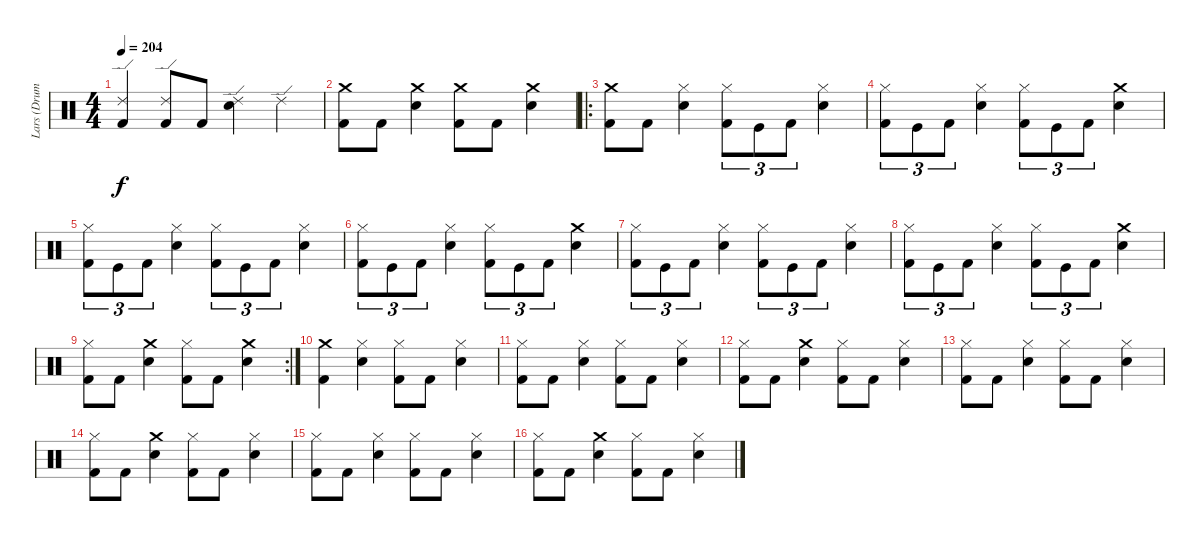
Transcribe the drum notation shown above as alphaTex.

\track ("Lars (Drums)" "Lars (Drum") {instrument percussion}
\staff {score}
\articulation defaults
\ts (4 4)
\tempo 204
\clef neutral
\ks c
("Kick (hit) 2" "Ride (edge) 2").4{dy f} ("Ride (edge) 2" "Kick (hit) 2").8 "Kick (hit) 2".8 ("Snare (hit) 2" "Ride (edge) 2").4 "Ride (edge) 2".4 |
("Kick (hit) 2" "Crash medium (hit)").8 "Kick (hit) 2".8 ("Snare (hit) 2" "Crash medium (hit)").4 ("Kick (hit) 2" "Crash medium (hit)").8 "Kick (hit) 2".8 ("Snare (hit) 2" "Crash medium (hit)").4 |
\ro
("Crash medium (hit)" "Kick (hit) 2").8 "Kick (hit) 2".8 ("Snare (hit) 2" "Hi-Hat (closed)").4 ("Hi-Hat (closed)" "Kick (hit) 2").8{tu (3 2)} "Kick (hit)".8{tu (3 2)} "Kick (hit) 2".8{tu (3 2)} ("Hi-Hat (closed)" "Snare (hit) 2").4 |
("Hi-Hat (closed)" "Kick (hit) 2").8{tu (3 2)} "Kick (hit)".8{tu (3 2)} "Kick (hit) 2".8{tu (3 2)} ("Snare (hit) 2" "Hi-Hat (closed)").4 ("Hi-Hat (closed)" "Kick (hit) 2").8{tu (3 2)} "Kick (hit)".8{tu (3 2)} "Kick (hit) 2".8{tu (3 2)} ("Crash medium (hit)" "Snare (hit) 2").4 |
("Hi-Hat (closed)" "Kick (hit) 2").8{tu (3 2)} "Kick (hit)".8{tu (3 2)} "Kick (hit) 2".8{tu (3 2)} ("Snare (hit) 2" "Hi-Hat (closed)").4 ("Hi-Hat (closed)" "Kick (hit) 2").8{tu (3 2)} "Kick (hit)".8{tu (3 2)} "Kick (hit) 2".8{tu (3 2)} ("Hi-Hat (closed)" "Snare (hit) 2").4 |
("Hi-Hat (closed)" "Kick (hit) 2").8{tu (3 2)} "Kick (hit)".8{tu (3 2)} "Kick (hit) 2".8{tu (3 2)} ("Snare (hit) 2" "Hi-Hat (closed)").4 ("Hi-Hat (closed)" "Kick (hit) 2").8{tu (3 2)} "Kick (hit)".8{tu (3 2)} "Kick (hit) 2".8{tu (3 2)} ("Crash medium (hit)" "Snare (hit) 2").4 |
("Hi-Hat (closed)" "Kick (hit) 2").8{tu (3 2)} "Kick (hit)".8{tu (3 2)} "Kick (hit) 2".8{tu (3 2)} ("Snare (hit) 2" "Hi-Hat (closed)").4 ("Hi-Hat (closed)" "Kick (hit) 2").8{tu (3 2)} "Kick (hit)".8{tu (3 2)} "Kick (hit) 2".8{tu (3 2)} ("Hi-Hat (closed)" "Snare (hit) 2").4 |
("Hi-Hat (closed)" "Kick (hit) 2").8{tu (3 2)} "Kick (hit)".8{tu (3 2)} "Kick (hit) 2".8{tu (3 2)} ("Snare (hit) 2" "Hi-Hat (closed)").4 ("Hi-Hat (closed)" "Kick (hit) 2").8{tu (3 2)} "Kick (hit)".8{tu (3 2)} "Kick (hit) 2".8{tu (3 2)} ("Crash medium (hit)" "Snare (hit) 2").4 |
\rc 2
("Kick (hit) 2" "Hi-Hat (closed)").8 "Kick (hit) 2".8 ("Crash medium (hit)" "Snare (hit) 2").4 ("Kick (hit) 2" "Hi-Hat (closed)").8 "Kick (hit) 2".8 ("Crash medium (hit)" "Snare (hit) 2").4 |
("Kick (hit) 2" "Crash medium (hit)").4 ("Hi-Hat (closed)" "Snare (hit) 2").4 ("Hi-Hat (closed)" "Kick (hit) 2").8 "Kick (hit) 2".8 ("Snare (hit) 2" "Hi-Hat (closed)").4 |
("Kick (hit) 2" "Hi-Hat (closed)").8 "Kick (hit) 2".8 ("Snare (hit) 2" "Hi-Hat (closed)").4 ("Kick (hit) 2" "Hi-Hat (closed)").8 "Kick (hit) 2".8 ("Snare (hit) 2" "Hi-Hat (closed)").4 |
("Kick (hit) 2" "Hi-Hat (closed)").8 "Kick (hit) 2".8 ("Crash medium (hit)" "Snare (hit) 2").4 ("Kick (hit) 2" "Hi-Hat (closed)").8 "Kick (hit) 2".8 ("Snare (hit) 2" "Hi-Hat (closed)").4 |
("Kick (hit) 2" "Hi-Hat (closed)").8 "Kick (hit) 2".8 ("Snare (hit) 2" "Hi-Hat (closed)").4 ("Kick (hit) 2" "Hi-Hat (closed)").8 "Kick (hit) 2".8 ("Snare (hit) 2" "Hi-Hat (closed)").4 |
("Kick (hit) 2" "Hi-Hat (closed)").8 "Kick (hit) 2".8 ("Crash medium (hit)" "Snare (hit) 2").4 ("Kick (hit) 2" "Hi-Hat (closed)").8 "Kick (hit) 2".8 ("Snare (hit) 2" "Hi-Hat (closed)").4 |
("Kick (hit) 2" "Hi-Hat (closed)").8 "Kick (hit) 2".8 ("Snare (hit) 2" "Hi-Hat (closed)").4 ("Kick (hit) 2" "Hi-Hat (closed)").8 "Kick (hit) 2".8 ("Snare (hit) 2" "Hi-Hat (closed)").4 |
("Kick (hit) 2" "Hi-Hat (closed)").8 "Kick (hit) 2".8 ("Crash medium (hit)" "Snare (hit) 2").4 ("Kick (hit) 2" "Hi-Hat (closed)").8 "Kick (hit) 2".8 ("Snare (hit) 2" "Hi-Hat (closed)").4
